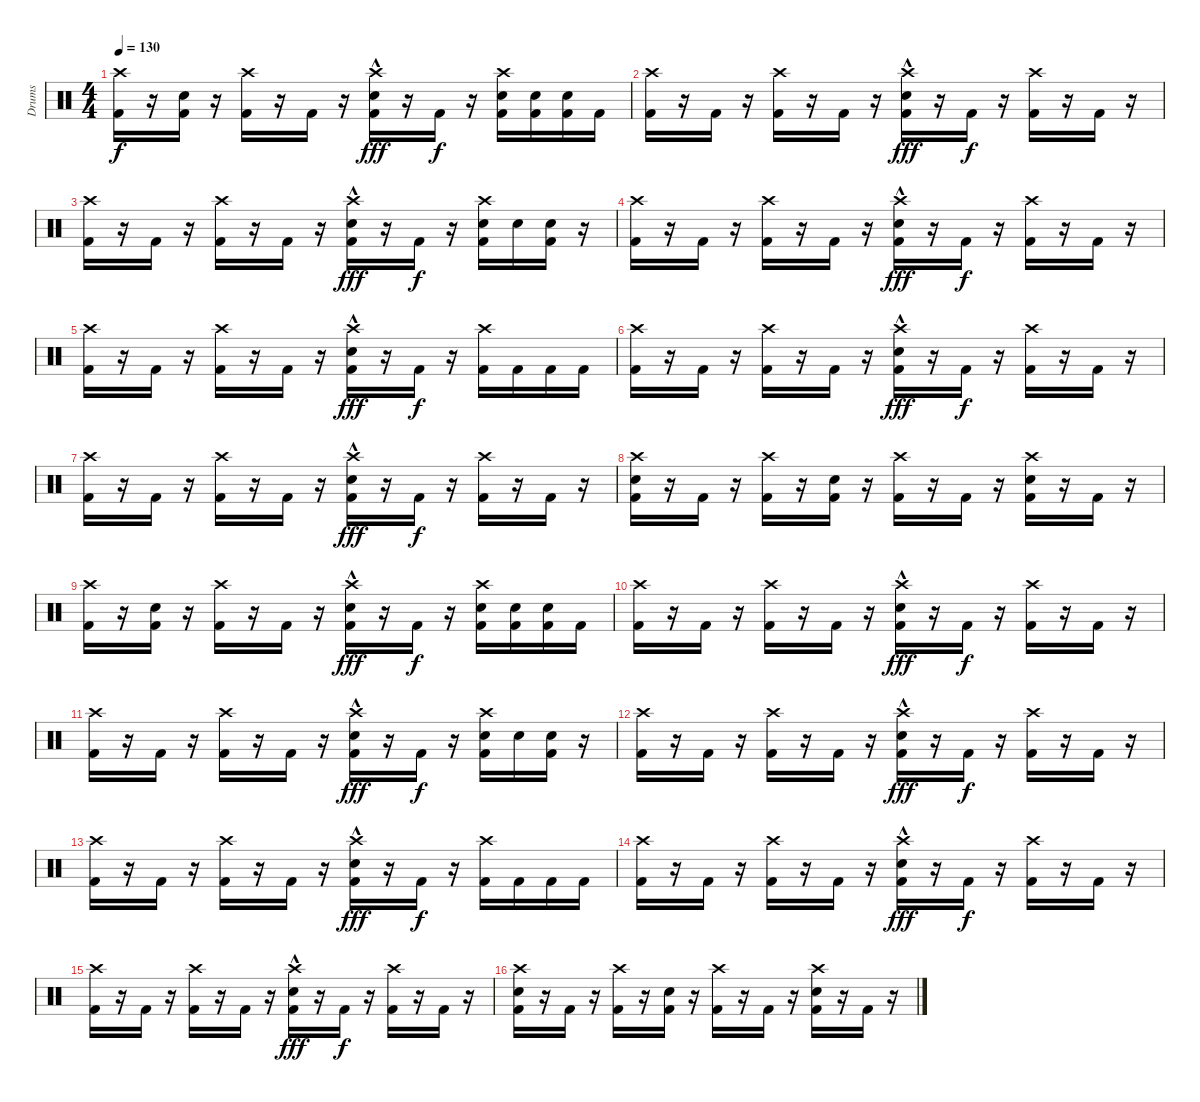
\track ("Drums" "Drums") {instrument percussion}
\staff {score}
\articulation defaults
\ts (4 4)
\tempo 130
\clef neutral
\ks c
("Crash high (hit)" "Kick (hit) 2").16{dy f} r.16 ("Electric Snare (hit)" "Kick (hit) 2").16 r.16 ("Crash high (hit)" "Kick (hit) 2").16 r.16 "Kick (hit) 2".16 r.16 ("Crash high (hit)" "Electric Snare (hit)"{hac} "Kick (hit) 2").16{dy fff} r.16 "Kick (hit) 2".16{dy f} r.16 ("Crash high (hit)" "Electric Snare (hit)" "Kick (hit) 2").16 ("Electric Snare (hit)" "Kick (hit) 2").16 ("Electric Snare (hit)" "Kick (hit) 2").16 "Kick (hit) 2".16 |
("Crash high (hit)" "Kick (hit) 2").16 r.16 "Kick (hit) 2".16 r.16 ("Crash high (hit)" "Kick (hit) 2").16 r.16 "Kick (hit) 2".16 r.16 ("Crash high (hit)" "Electric Snare (hit)"{hac} "Kick (hit) 2").16{dy fff} r.16 "Kick (hit) 2".16{dy f} r.16 ("Crash high (hit)" "Kick (hit) 2").16 r.16 "Kick (hit) 2".16 r.16 |
("Crash high (hit)" "Kick (hit) 2").16 r.16 "Kick (hit) 2".16 r.16 ("Crash high (hit)" "Kick (hit) 2").16 r.16 "Kick (hit) 2".16 r.16 ("Crash high (hit)" "Electric Snare (hit)"{hac} "Kick (hit) 2").16{dy fff} r.16 "Kick (hit) 2".16{dy f} r.16 ("Crash high (hit)" "Electric Snare (hit)" "Kick (hit) 2").16 "Electric Snare (hit)".16 ("Electric Snare (hit)" "Kick (hit) 2").16 r.16 |
("Crash high (hit)" "Kick (hit) 2").16 r.16 "Kick (hit) 2".16 r.16 ("Crash high (hit)" "Kick (hit) 2").16 r.16 "Kick (hit) 2".16 r.16 ("Crash high (hit)" "Electric Snare (hit)"{hac} "Kick (hit) 2").16{dy fff} r.16 "Kick (hit) 2".16{dy f} r.16 ("Crash high (hit)" "Kick (hit) 2").16 r.16 "Kick (hit) 2".16 r.16 |
("Crash high (hit)" "Kick (hit) 2").16 r.16 "Kick (hit) 2".16 r.16 ("Crash high (hit)" "Kick (hit) 2").16 r.16 "Kick (hit) 2".16 r.16 ("Crash high (hit)" "Electric Snare (hit)"{hac} "Kick (hit) 2").16{dy fff} r.16 "Kick (hit) 2".16{dy f} r.16 ("Crash high (hit)" "Kick (hit) 2").16 "Kick (hit) 2".16 "Kick (hit) 2".16 "Kick (hit) 2".16 |
("Crash high (hit)" "Kick (hit) 2").16 r.16 "Kick (hit) 2".16 r.16 ("Crash high (hit)" "Kick (hit) 2").16 r.16 "Kick (hit) 2".16 r.16 ("Crash high (hit)" "Electric Snare (hit)"{hac} "Kick (hit) 2").16{dy fff} r.16 "Kick (hit) 2".16{dy f} r.16 ("Crash high (hit)" "Kick (hit) 2").16 r.16 "Kick (hit) 2".16 r.16 |
("Crash high (hit)" "Kick (hit) 2").16 r.16 "Kick (hit) 2".16 r.16 ("Crash high (hit)" "Kick (hit) 2").16 r.16 "Kick (hit) 2".16 r.16 ("Crash high (hit)" "Electric Snare (hit)"{hac} "Kick (hit) 2").16{dy fff} r.16 "Kick (hit) 2".16{dy f} r.16 ("Crash high (hit)" "Kick (hit) 2").16 r.16 "Kick (hit) 2".16 r.16 |
("Crash high (hit)" "Electric Snare (hit)" "Kick (hit) 2").16 r.16 "Kick (hit) 2".16 r.16 ("Crash high (hit)" "Kick (hit) 2").16 r.16 ("Electric Snare (hit)" "Kick (hit) 2").16 r.16 ("Crash high (hit)" "Kick (hit) 2").16 r.16 "Kick (hit) 2".16 r.16 ("Crash high (hit)" "Electric Snare (hit)" "Kick (hit) 2").16 r.16 "Kick (hit) 2".16 r.16 |
("Crash high (hit)" "Kick (hit) 2").16 r.16 ("Electric Snare (hit)" "Kick (hit) 2").16 r.16 ("Crash high (hit)" "Kick (hit) 2").16 r.16 "Kick (hit) 2".16 r.16 ("Crash high (hit)" "Electric Snare (hit)"{hac} "Kick (hit) 2").16{dy fff} r.16 "Kick (hit) 2".16{dy f} r.16 ("Crash high (hit)" "Electric Snare (hit)" "Kick (hit) 2").16 ("Electric Snare (hit)" "Kick (hit) 2").16 ("Electric Snare (hit)" "Kick (hit) 2").16 "Kick (hit) 2".16 |
("Crash high (hit)" "Kick (hit) 2").16 r.16 "Kick (hit) 2".16 r.16 ("Crash high (hit)" "Kick (hit) 2").16 r.16 "Kick (hit) 2".16 r.16 ("Crash high (hit)" "Electric Snare (hit)"{hac} "Kick (hit) 2").16{dy fff} r.16 "Kick (hit) 2".16{dy f} r.16 ("Crash high (hit)" "Kick (hit) 2").16 r.16 "Kick (hit) 2".16 r.16 |
("Crash high (hit)" "Kick (hit) 2").16 r.16 "Kick (hit) 2".16 r.16 ("Crash high (hit)" "Kick (hit) 2").16 r.16 "Kick (hit) 2".16 r.16 ("Crash high (hit)" "Electric Snare (hit)"{hac} "Kick (hit) 2").16{dy fff} r.16 "Kick (hit) 2".16{dy f} r.16 ("Crash high (hit)" "Electric Snare (hit)" "Kick (hit) 2").16 "Electric Snare (hit)".16 ("Electric Snare (hit)" "Kick (hit) 2").16 r.16 |
("Crash high (hit)" "Kick (hit) 2").16 r.16 "Kick (hit) 2".16 r.16 ("Crash high (hit)" "Kick (hit) 2").16 r.16 "Kick (hit) 2".16 r.16 ("Crash high (hit)" "Electric Snare (hit)"{hac} "Kick (hit) 2").16{dy fff} r.16 "Kick (hit) 2".16{dy f} r.16 ("Crash high (hit)" "Kick (hit) 2").16 r.16 "Kick (hit) 2".16 r.16 |
("Crash high (hit)" "Kick (hit) 2").16 r.16 "Kick (hit) 2".16 r.16 ("Crash high (hit)" "Kick (hit) 2").16 r.16 "Kick (hit) 2".16 r.16 ("Crash high (hit)" "Electric Snare (hit)"{hac} "Kick (hit) 2").16{dy fff} r.16 "Kick (hit) 2".16{dy f} r.16 ("Crash high (hit)" "Kick (hit) 2").16 "Kick (hit) 2".16 "Kick (hit) 2".16 "Kick (hit) 2".16 |
("Crash high (hit)" "Kick (hit) 2").16 r.16 "Kick (hit) 2".16 r.16 ("Crash high (hit)" "Kick (hit) 2").16 r.16 "Kick (hit) 2".16 r.16 ("Crash high (hit)" "Electric Snare (hit)"{hac} "Kick (hit) 2").16{dy fff} r.16 "Kick (hit) 2".16{dy f} r.16 ("Crash high (hit)" "Kick (hit) 2").16 r.16 "Kick (hit) 2".16 r.16 |
("Crash high (hit)" "Kick (hit) 2").16 r.16 "Kick (hit) 2".16 r.16 ("Crash high (hit)" "Kick (hit) 2").16 r.16 "Kick (hit) 2".16 r.16 ("Crash high (hit)" "Electric Snare (hit)"{hac} "Kick (hit) 2").16{dy fff} r.16 "Kick (hit) 2".16{dy f} r.16 ("Crash high (hit)" "Kick (hit) 2").16 r.16 "Kick (hit) 2".16 r.16 |
("Crash high (hit)" "Electric Snare (hit)" "Kick (hit) 2").16 r.16 "Kick (hit) 2".16 r.16 ("Crash high (hit)" "Kick (hit) 2").16 r.16 ("Electric Snare (hit)" "Kick (hit) 2").16 r.16 ("Crash high (hit)" "Kick (hit) 2").16 r.16 "Kick (hit) 2".16 r.16 ("Crash high (hit)" "Electric Snare (hit)" "Kick (hit) 2").16 r.16 "Kick (hit) 2".16 r.16
